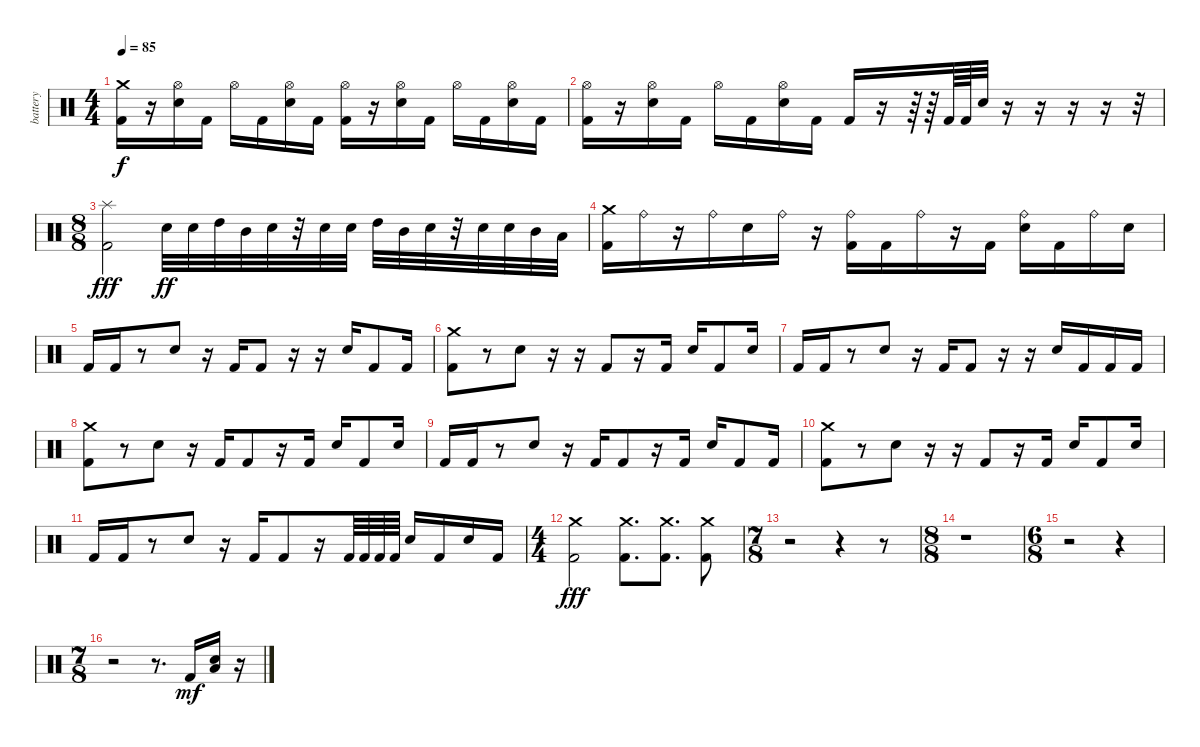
\track ("battery" "battery") {instrument percussion}
\staff {score}
\articulation defaults
\ts (4 4)
\tempo 85
\clef neutral
\ks c
("Crash medium (hit)" "Kick (hit) 2").16{dy f} r.16 ("Hi-Hat (open)" "Electric Snare (hit)").16 "Kick (hit) 2".16 "Hi-Hat (open)".16 "Kick (hit) 2".16 ("Hi-Hat (open)" "Electric Snare (hit)").16 "Kick (hit) 2".16 ("Hi-Hat (open)" "Kick (hit) 2").16 r.16 ("Hi-Hat (open)" "Electric Snare (hit)").16 "Kick (hit) 2".16 "Hi-Hat (open)".16 "Kick (hit) 2".16 ("Hi-Hat (open)" "Electric Snare (hit)").16 "Kick (hit) 2".16 |
("Hi-Hat (open)" "Kick (hit) 2").16 r.16 ("Hi-Hat (open)" "Electric Snare (hit)").16 "Kick (hit) 2".16 "Hi-Hat (open)".16 "Kick (hit) 2".16 ("Hi-Hat (open)" "Electric Snare (hit)").16 "Kick (hit) 2".16 "Kick (hit) 2".16 r.16 r.64 r.64 "Kick (hit) 2".64 "Kick (hit) 2".64 "Electric Snare (hit)".32 r.16 r.16 r.16 r.16 r.32 |
\ts (8 8)
("Splash (hit)" "Kick (hit) 2").2{dy fff} "Electric Snare (hit)".32{dy ff} "Electric Snare (hit)".32 "High Tom (hit)".32 "Mid Tom (hit)".32 "Electric Snare (hit)".32 r.32 "Electric Snare (hit)".32 "Electric Snare (hit)".32 "High Tom (hit)".32 "Mid Tom (hit)".32 "Electric Snare (hit)".32 r.32 "Electric Snare (hit)".32 "Electric Snare (hit)".32 "Mid Tom (hit)".32 "Low Tom (hit)".32 |
("Crash medium (hit)" "Kick (hit) 2").16 "Ride (bell)".16 r.16 "Ride (bell)".16 "Electric Snare (hit)".16 "Ride (bell)".16 r.16 ("Ride (bell)" "Kick (hit) 2").16 "Kick (hit) 2".16 "Ride (bell)".16 r.16 "Kick (hit) 2".16 ("Ride (bell)" "Electric Snare (hit)").16 "Kick (hit) 2".16 "Ride (bell)".16 "Electric Snare (hit)".16 |
"Kick (hit) 2".16 "Kick (hit) 2".16 r.8 "Electric Snare (hit)".8 r.16 "Kick (hit) 2".16 "Kick (hit) 2".8 r.16 r.16 "Electric Snare (hit)".16 "Kick (hit) 2".8 "Kick (hit) 2".16 |
("Crash medium (hit)" "Kick (hit) 2").8 r.8 "Electric Snare (hit)".8 r.16 r.16 "Kick (hit) 2".8 r.16 "Kick (hit) 2".16 "Electric Snare (hit)".16 "Kick (hit) 2".8 "Electric Snare (hit)".16 |
"Kick (hit) 2".16 "Kick (hit) 2".16 r.8 "Electric Snare (hit)".8 r.16 "Kick (hit) 2".16 "Kick (hit) 2".8 r.16 r.16 "Electric Snare (hit)".16 "Kick (hit) 2".16 "Kick (hit) 2".16 "Kick (hit) 2".16 |
("Crash medium (hit)" "Kick (hit) 2").8 r.8 "Electric Snare (hit)".8 r.16 "Kick (hit) 2".16 "Kick (hit) 2".8 r.16 "Kick (hit) 2".16 "Electric Snare (hit)".16 "Kick (hit) 2".8 "Electric Snare (hit)".16 |
"Kick (hit) 2".16 "Kick (hit) 2".16 r.8 "Electric Snare (hit)".8 r.16 "Kick (hit) 2".16 "Kick (hit) 2".8 r.16 "Kick (hit) 2".16 "Electric Snare (hit)".16 "Kick (hit) 2".8 "Kick (hit) 2".16 |
("Crash medium (hit)" "Kick (hit) 2").8 r.8 "Electric Snare (hit)".8 r.16 r.16 "Kick (hit) 2".8 r.16 "Kick (hit) 2".16 "Electric Snare (hit)".16 "Kick (hit) 2".8 "Electric Snare (hit)".16 |
"Kick (hit) 2".16 "Kick (hit) 2".16 r.8 "Electric Snare (hit)".8 r.16 "Kick (hit) 2".16 "Kick (hit) 2".8 r.16 "Kick (hit) 2".64 "Kick (hit) 2".64 "Kick (hit) 2".64 "Kick (hit) 2".64 "Electric Snare (hit)".16 "Kick (hit) 2".16 "Electric Snare (hit)".16 "Kick (hit) 2".16 |
\ts (4 4)
("Crash medium (hit)" "Kick (hit) 2").2{dy fff} ("Crash medium (hit)" "Kick (hit) 2").8{d} ("Crash medium (hit)" "Kick (hit) 2").8{d} ("Crash medium (hit)" "Kick (hit) 2").8 |
\ts (7 8)
r.2 r.4 r.8 |
\ts (8 8)
r.1 |
\ts (6 8)
r.2 r.4 |
\ts (7 8)
r.2 r.8{d} "Kick (hit) 2".16{dy mf} ("Electric Snare (hit)" "Low Tom (hit)").16 r.16
